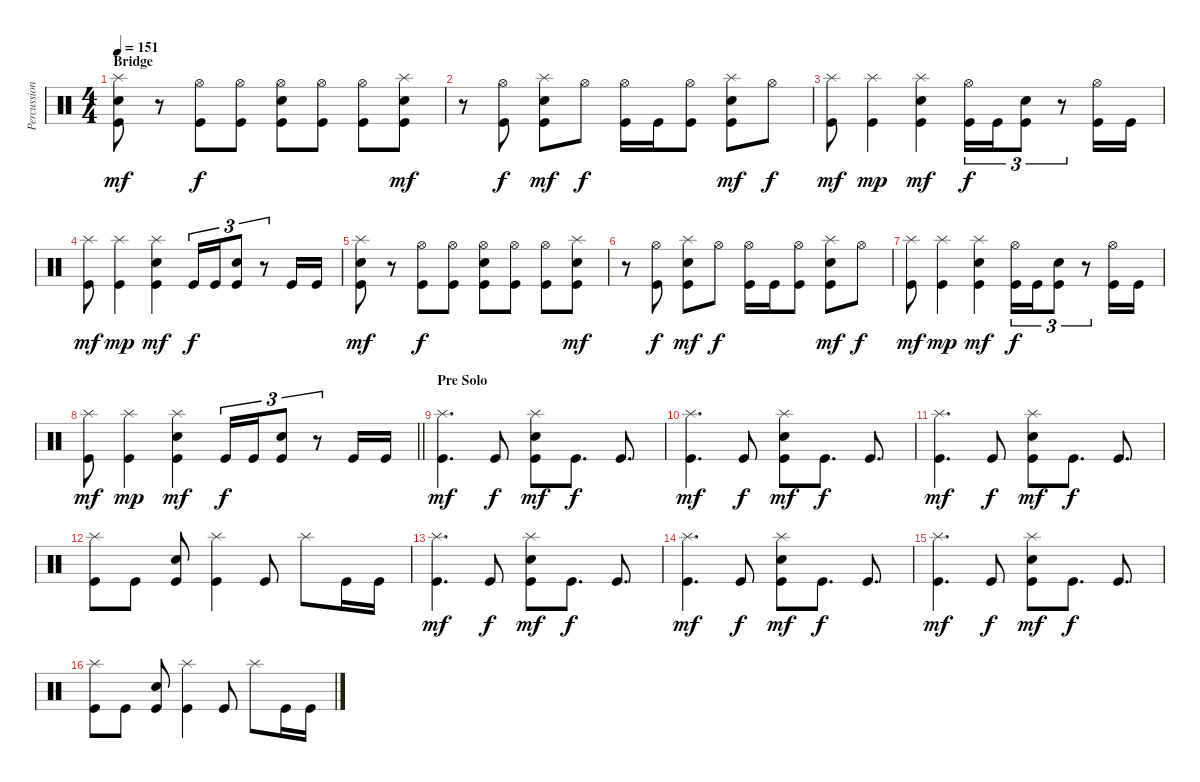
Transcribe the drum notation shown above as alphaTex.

\track ("Percussion" "Percussion") {instrument percussion}
\staff {score}
\articulation defaults
\ts (4 4)
\section ("" "Bridge")
\tempo 151
\clef neutral
\ks c
("Splash (hit)" "Snare (hit) 2" "Kick (hit)").8{dy mf} r.8 ("Hi-Hat (open)" "Kick (hit)").8{dy f} ("Hi-Hat (open)" "Kick (hit)").8 ("Hi-Hat (open)" "Snare (hit) 2" "Kick (hit)").8 ("Hi-Hat (open)" "Kick (hit)").8 ("Hi-Hat (open)" "Kick (hit)").8 ("Splash (hit)" "Snare (hit) 2" "Kick (hit)").8{dy mf} |
r.8 ("Hi-Hat (open)" "Kick (hit)").8{dy f} ("Splash (hit)" "Snare (hit) 2" "Kick (hit)").8{dy mf} "Hi-Hat (open)".8{dy f} ("Hi-Hat (open)" "Kick (hit)").16 "Kick (hit)".16 ("Hi-Hat (open)" "Kick (hit)").8 ("Splash (hit)" "Snare (hit) 2" "Kick (hit)").8{dy mf} "Hi-Hat (open)".8{dy f} |
("Splash (hit)" "Kick (hit)").8{dy mf} ("Splash (hit)" "Kick (hit)").4{dy mp} ("Splash (hit)" "Snare (hit) 2" "Kick (hit)").4{dy mf} ("Hi-Hat (open)" "Kick (hit)").16{tu (3 2) dy f} "Kick (hit)".16{tu (3 2)} ("Snare (hit) 2" "Kick (hit)").8{tu (3 2)} r.8{tu (3 2)} ("Hi-Hat (open)" "Kick (hit)").16 "Kick (hit)".16 |
("Splash (hit)" "Kick (hit)").8{dy mf} ("Splash (hit)" "Kick (hit)").4{dy mp} ("Splash (hit)" "Snare (hit) 2" "Kick (hit)").4{dy mf} "Kick (hit)".16{tu (3 2) dy f} "Kick (hit)".16{tu (3 2)} ("Snare (hit) 2" "Kick (hit)").8{tu (3 2)} r.8{tu (3 2)} "Kick (hit)".16 "Kick (hit)".16 |
("Splash (hit)" "Snare (hit) 2" "Kick (hit)").8{dy mf} r.8 ("Hi-Hat (open)" "Kick (hit)").8{dy f} ("Hi-Hat (open)" "Kick (hit)").8 ("Hi-Hat (open)" "Snare (hit) 2" "Kick (hit)").8 ("Hi-Hat (open)" "Kick (hit)").8 ("Hi-Hat (open)" "Kick (hit)").8 ("Splash (hit)" "Snare (hit) 2" "Kick (hit)").8{dy mf} |
r.8 ("Hi-Hat (open)" "Kick (hit)").8{dy f} ("Splash (hit)" "Snare (hit) 2" "Kick (hit)").8{dy mf} "Hi-Hat (open)".8{dy f} ("Hi-Hat (open)" "Kick (hit)").16 "Kick (hit)".16 ("Hi-Hat (open)" "Kick (hit)").8 ("Splash (hit)" "Snare (hit) 2" "Kick (hit)").8{dy mf} "Hi-Hat (open)".8{dy f} |
("Splash (hit)" "Kick (hit)").8{dy mf} ("Splash (hit)" "Kick (hit)").4{dy mp} ("Splash (hit)" "Snare (hit) 2" "Kick (hit)").4{dy mf} ("Hi-Hat (open)" "Kick (hit)").16{tu (3 2) dy f} "Kick (hit)".16{tu (3 2)} ("Snare (hit) 2" "Kick (hit)").8{tu (3 2)} r.8{tu (3 2)} ("Hi-Hat (open)" "Kick (hit)").16 "Kick (hit)".16 |
\barLineRight lightlight
("Splash (hit)" "Kick (hit)").8{dy mf} ("Splash (hit)" "Kick (hit)").4{dy mp} ("Splash (hit)" "Snare (hit) 2" "Kick (hit)").4{dy mf} "Kick (hit)".16{tu (3 2) dy f} "Kick (hit)".16{tu (3 2)} ("Snare (hit) 2" "Kick (hit)").8{tu (3 2)} r.8{tu (3 2)} "Kick (hit)".16 "Kick (hit)".16 |
\section ("" "Pre Solo")
("Splash (hit)" "Kick (hit)").4{d dy mf} "Kick (hit)".8{dy f} ("Splash (hit)" "Snare (hit) 2" "Kick (hit)").8{dy mf} "Kick (hit)".8{d dy f} "Kick (hit)".8{d} |
("Splash (hit)" "Kick (hit)").4{d dy mf} "Kick (hit)".8{dy f} ("Splash (hit)" "Snare (hit) 2" "Kick (hit)").8{dy mf} "Kick (hit)".8{d dy f} "Kick (hit)".8{d} |
("Splash (hit)" "Kick (hit)").4{d dy mf} "Kick (hit)".8{dy f} ("Splash (hit)" "Snare (hit) 2" "Kick (hit)").8{dy mf} "Kick (hit)".8{d dy f} "Kick (hit)".8{d} |
("Splash (hit)" "Kick (hit)").8 "Kick (hit)".8 ("Snare (hit) 2" "Kick (hit)").8 ("Splash (hit)" "Kick (hit)").4 "Kick (hit)".8 "Splash (hit)".8 "Kick (hit)".16 "Kick (hit)".16 |
("Splash (hit)" "Kick (hit)").4{d dy mf} "Kick (hit)".8{dy f} ("Splash (hit)" "Snare (hit) 2" "Kick (hit)").8{dy mf} "Kick (hit)".8{d dy f} "Kick (hit)".8{d} |
("Splash (hit)" "Kick (hit)").4{d dy mf} "Kick (hit)".8{dy f} ("Splash (hit)" "Snare (hit) 2" "Kick (hit)").8{dy mf} "Kick (hit)".8{d dy f} "Kick (hit)".8{d} |
("Splash (hit)" "Kick (hit)").4{d dy mf} "Kick (hit)".8{dy f} ("Splash (hit)" "Snare (hit) 2" "Kick (hit)").8{dy mf} "Kick (hit)".8{d dy f} "Kick (hit)".8{d} |
("Splash (hit)" "Kick (hit)").8 "Kick (hit)".8 ("Snare (hit) 2" "Kick (hit)").8 ("Splash (hit)" "Kick (hit)").4 "Kick (hit)".8 "Splash (hit)".8 "Kick (hit)".16 "Kick (hit)".16
